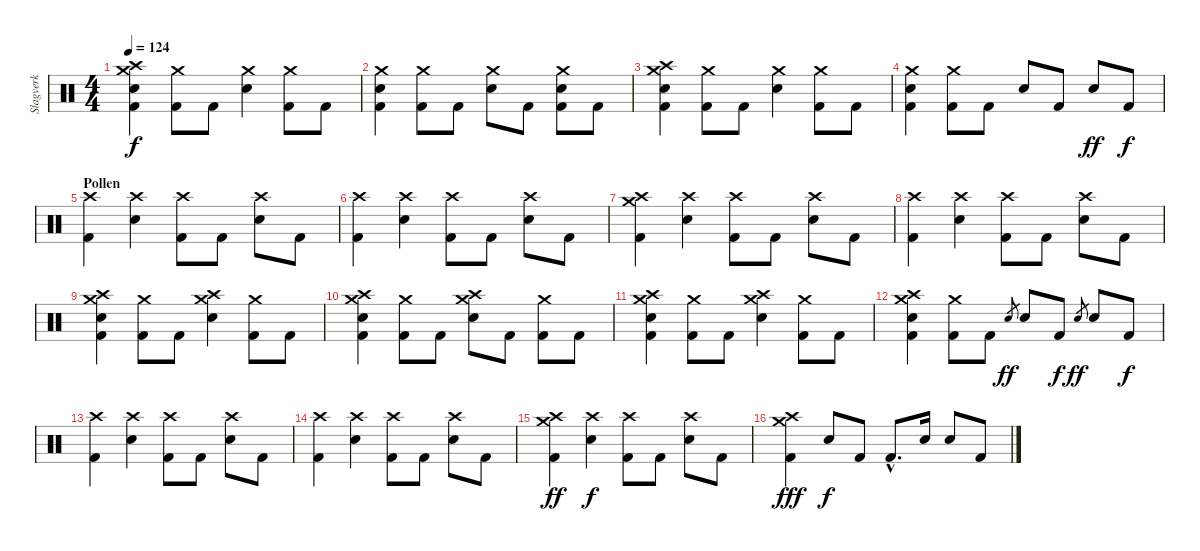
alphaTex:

\track ("Slagverk" "Slagverk") {instrument percussion}
\staff {score}
\articulation defaults
\ts (4 4)
\tempo 124
\clef neutral
\ks c
("Crash medium (hit)" "Crash high (hit)" "Electric Snare (hit)" "Kick (hit) 2").4{dy f} ("Crash medium (hit)" "Kick (hit) 2").8 "Kick (hit) 2".8 ("Crash medium (hit)" "Electric Snare (hit)").4 ("Crash medium (hit)" "Kick (hit) 2").8 "Kick (hit) 2".8 |
("Crash medium (hit)" "Electric Snare (hit)" "Kick (hit) 2").4 ("Crash medium (hit)" "Kick (hit) 2").8 "Kick (hit) 2".8 ("Crash medium (hit)" "Electric Snare (hit)").8 "Kick (hit) 2".8 ("Crash medium (hit)" "Electric Snare (hit)" "Kick (hit) 2").8 "Kick (hit) 2".8 |
\section ("" "")
("Crash medium (hit)" "Crash high (hit)" "Electric Snare (hit)" "Kick (hit) 2").4 ("Crash medium (hit)" "Kick (hit) 2").8 "Kick (hit) 2".8 ("Crash medium (hit)" "Electric Snare (hit)").4 ("Crash medium (hit)" "Kick (hit) 2").8 "Kick (hit) 2".8 |
("Crash medium (hit)" "Electric Snare (hit)" "Kick (hit) 2").4 ("Crash medium (hit)" "Kick (hit) 2").8 "Kick (hit) 2".8 "Electric Snare (hit)".8 "Kick (hit) 2".8 "Electric Snare (hit)".8{dy ff} "Kick (hit) 2".8{dy f} |
\section ("" "Pollen")
("Crash high (hit)" "Kick (hit) 2").4 ("Crash high (hit)" "Electric Snare (hit)").4 ("Crash high (hit)" "Kick (hit) 2").8 "Kick (hit) 2".8 ("Crash high (hit)" "Electric Snare (hit)").8 "Kick (hit) 2".8 |
("Crash high (hit)" "Kick (hit) 2").4 ("Crash high (hit)" "Electric Snare (hit)").4 ("Crash high (hit)" "Kick (hit) 2").8 "Kick (hit) 2".8 ("Crash high (hit)" "Electric Snare (hit)").8 "Kick (hit) 2".8 |
("Crash high (hit)" "Crash medium (hit)" "Kick (hit) 2").4 ("Crash high (hit)" "Electric Snare (hit)").4 ("Crash high (hit)" "Kick (hit) 2").8 "Kick (hit) 2".8 ("Crash high (hit)" "Electric Snare (hit)").8 "Kick (hit) 2".8 |
("Crash high (hit)" "Kick (hit) 2").4 ("Crash high (hit)" "Electric Snare (hit)").4 ("Crash high (hit)" "Kick (hit) 2").8 "Kick (hit) 2".8 ("Crash high (hit)" "Electric Snare (hit)").8 "Kick (hit) 2".8 |
\section ("" "")
("Crash medium (hit)" "Crash high (hit)" "Electric Snare (hit)" "Kick (hit) 2").4 ("Crash medium (hit)" "Kick (hit) 2").8 "Kick (hit) 2".8 ("Crash medium (hit)" "Crash high (hit)" "Electric Snare (hit)").4 ("Crash medium (hit)" "Kick (hit) 2").8 "Kick (hit) 2".8 |
("Crash medium (hit)" "Crash high (hit)" "Electric Snare (hit)" "Kick (hit) 2").4 ("Crash medium (hit)" "Kick (hit) 2").8 "Kick (hit) 2".8 ("Crash medium (hit)" "Crash high (hit)" "Electric Snare (hit)").8 "Kick (hit) 2".8 ("Crash medium (hit)" "Kick (hit) 2").8 "Kick (hit) 2".8 |
("Crash medium (hit)" "Crash high (hit)" "Electric Snare (hit)" "Kick (hit) 2").4 ("Crash medium (hit)" "Kick (hit) 2").8 "Kick (hit) 2".8 ("Crash medium (hit)" "Crash high (hit)" "Electric Snare (hit)").4 ("Crash medium (hit)" "Kick (hit) 2").8 "Kick (hit) 2".8 |
("Crash medium (hit)" "Crash high (hit)" "Electric Snare (hit)" "Kick (hit) 2").4 ("Crash medium (hit)" "Kick (hit) 2").8 "Kick (hit) 2".8 "Electric Snare (hit)".8{gr dy ff} "Electric Snare (hit)".8 "Kick (hit) 2".8{dy f} "Electric Snare (hit)".8{gr dy ff} "Electric Snare (hit)".8 "Kick (hit) 2".8{dy f} |
\section ("" "")
("Crash high (hit)" "Kick (hit) 2").4 ("Crash high (hit)" "Electric Snare (hit)").4 ("Crash high (hit)" "Kick (hit) 2").8 "Kick (hit) 2".8 ("Crash high (hit)" "Electric Snare (hit)").8 "Kick (hit) 2".8 |
("Crash high (hit)" "Kick (hit) 2").4 ("Crash high (hit)" "Electric Snare (hit)").4 ("Crash high (hit)" "Kick (hit) 2").8 "Kick (hit) 2".8 ("Crash high (hit)" "Electric Snare (hit)").8 "Kick (hit) 2".8 |
("Crash high (hit)" "Crash medium (hit)" "Kick (hit) 2").4{dy ff} ("Crash high (hit)" "Electric Snare (hit)").4{dy f} ("Crash high (hit)" "Kick (hit) 2").8 "Kick (hit) 2".8 ("Crash high (hit)" "Electric Snare (hit)").8 "Kick (hit) 2".8 |
("Crash high (hit)" "Crash medium (hit)" "Kick (hit) 2").4{dy fff} "Electric Snare (hit)".8{dy f} "Kick (hit) 2".8 "Kick (hit) 2"{hac}.8{d} "Electric Snare (hit)".16 "Electric Snare (hit)".8 "Kick (hit) 2".8
